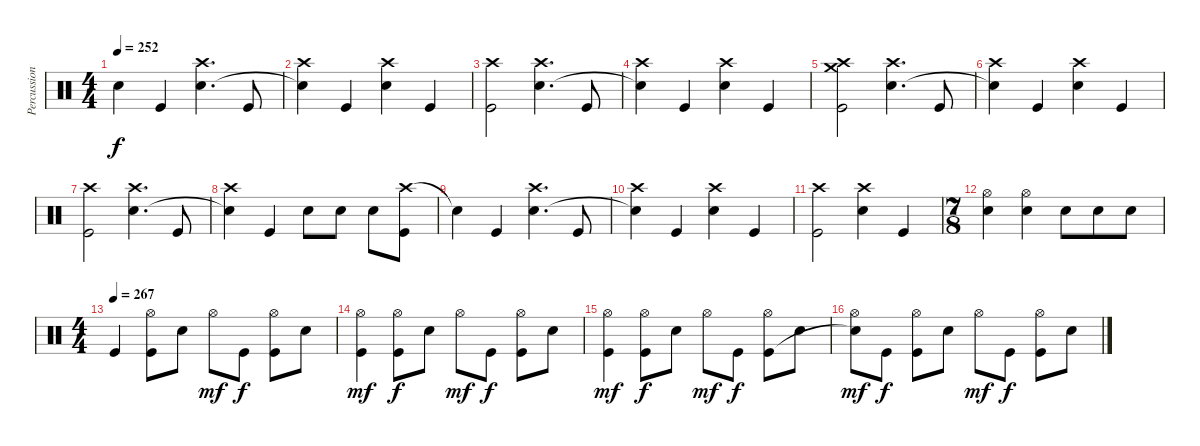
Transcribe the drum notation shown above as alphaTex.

\track ("Percussion" "Percussion") {instrument percussion}
\staff {score}
\articulation defaults
\ts (4 4)
\tempo 252
\clef neutral
\ks c "Snare (hit)"{t}.4{dy f} "Kick (hit)".4
("Crash high (hit)" "Electric Snare (hit)").4{d} "Kick (hit)".8 |
("Crash high (hit)" "Snare (hit)"{t}).4 "Kick (hit)".4 ("Crash high (hit)" "Electric Snare (hit)").4 "Kick (hit)".4 |
("Crash high (hit)" "Kick (hit)").2 ("Crash high (hit)" "Electric Snare (hit)").4{d} "Kick (hit)".8 |
("Crash high (hit)" "Snare (hit)"{t}).4 "Kick (hit)".4 ("Crash high (hit)" "Electric Snare (hit)").4 "Kick (hit)".4 |
("Crash high (hit)" "Crash medium (hit)" "Kick (hit)").2 ("Crash high (hit)" "Electric Snare (hit)").4{d} "Kick (hit)".8 |
("Crash high (hit)" "Snare (hit)"{t}).4 "Kick (hit)".4 ("Crash high (hit)" "Electric Snare (hit)").4 "Kick (hit)".4 |
("Crash high (hit)" "Kick (hit)").2 ("Crash high (hit)" "Electric Snare (hit)").4{d} "Kick (hit)".8 |
("Crash high (hit)" "Snare (hit)"{t}).4 "Kick (hit)".4 "Electric Snare (hit)".8 "Electric Snare (hit)".8 "Electric Snare (hit)".8 ("Crash high (hit)" "Kick (hit)").8 |
"Snare (hit)"{t}.4 "Kick (hit)".4 ("Crash high (hit)" "Electric Snare (hit)").4{d} "Kick (hit)".8 |
("Crash high (hit)" "Snare (hit)"{t}).4 "Kick (hit)".4 ("Crash high (hit)" "Electric Snare (hit)").4 "Kick (hit)".4 |
("Crash high (hit)" "Kick (hit)").2 ("Crash high (hit)" "Electric Snare (hit)").4 "Kick (hit)".4 |
\ts (7 8)
("Hi-Hat (open)" "Electric Snare (hit)").4 ("Hi-Hat (open)" "Electric Snare (hit)").4 "Electric Snare (hit)".8 "Electric Snare (hit)".8 "Electric Snare (hit)".8 |
\ts (4 4)
\tempo (267)
"Kick (hit)".4 ("Hi-Hat (open)" "Kick (hit)").8 "Electric Snare (hit)".8 "Hi-Hat (open)".8{dy mf} "Kick (hit)".8{dy f} ("Hi-Hat (open)" "Kick (hit)").8 "Electric Snare (hit)".8 |
("Hi-Hat (open)" "Kick (hit)").4{dy mf} ("Hi-Hat (open)" "Kick (hit)").8{dy f} "Electric Snare (hit)".8 "Hi-Hat (open)".8{dy mf} "Kick (hit)".8{dy f} ("Hi-Hat (open)" "Kick (hit)").8 "Electric Snare (hit)".8 |
("Hi-Hat (open)" "Kick (hit)").4{dy mf} ("Hi-Hat (open)" "Kick (hit)").8{dy f} "Electric Snare (hit)".8 "Hi-Hat (open)".8{dy mf} "Kick (hit)".8{dy f} ("Hi-Hat (open)" "Kick (hit)").8 "Electric Snare (hit)".8 |
("Hi-Hat (open)" "Snare (hit)"{t}).8{dy mf} "Kick (hit)".8{dy f} ("Hi-Hat (open)" "Kick (hit)").8 "Electric Snare (hit)".8 "Hi-Hat (open)".8{dy mf} "Kick (hit)".8{dy f} ("Hi-Hat (open)" "Kick (hit)").8 "Electric Snare (hit)".8
